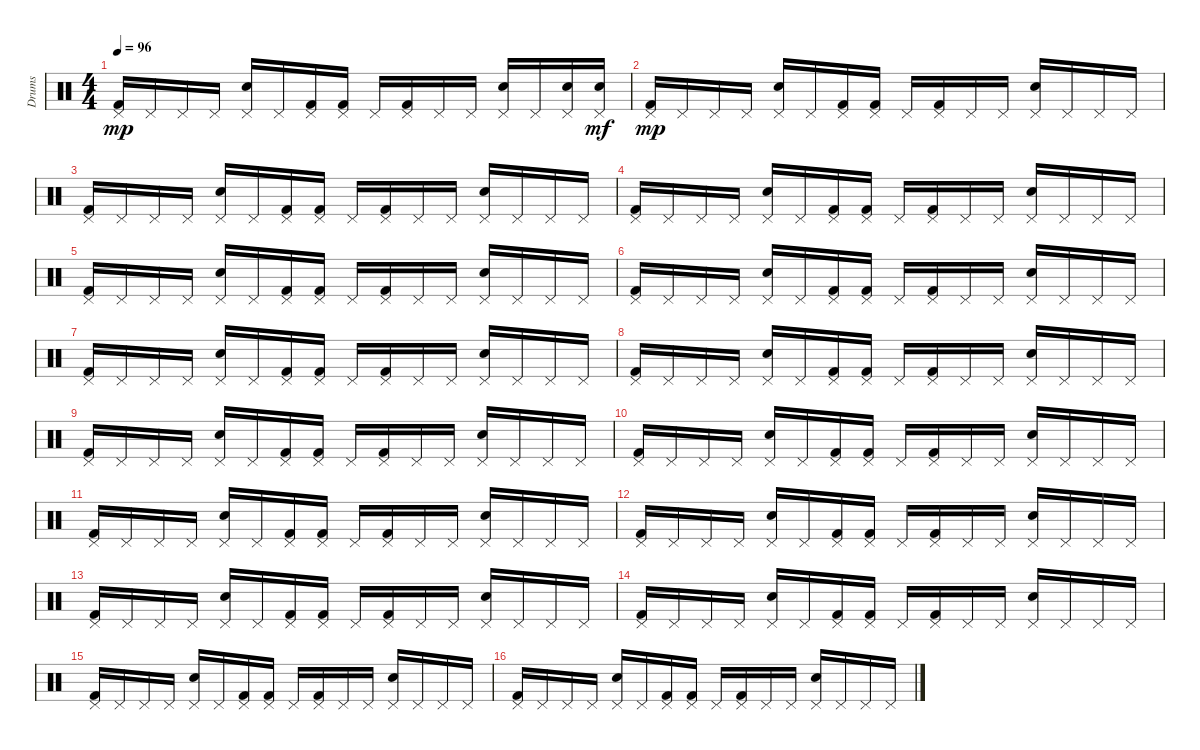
\track ("Drums" "Drums") {instrument percussion}
\staff {score}
\articulation defaults
\ts (4 4)
\tempo 96
\clef neutral
\ks c
("Pedal Hi-Hat (hit)" "Kick (hit) 2").16{dy mp} "Pedal Hi-Hat (hit)".16 "Pedal Hi-Hat (hit)".16 "Pedal Hi-Hat (hit)".16 ("Electric Snare (hit)" "Pedal Hi-Hat (hit)").16 "Pedal Hi-Hat (hit)".16 ("Pedal Hi-Hat (hit)" "Kick (hit) 2").16 ("Pedal Hi-Hat (hit)" "Kick (hit) 2").16 "Pedal Hi-Hat (hit)".16 ("Pedal Hi-Hat (hit)" "Kick (hit) 2").16 "Pedal Hi-Hat (hit)".16 "Pedal Hi-Hat (hit)".16 ("Electric Snare (hit)" "Pedal Hi-Hat (hit)").16 "Pedal Hi-Hat (hit)".16 ("Electric Snare (hit)" "Pedal Hi-Hat (hit)").16 ("Pedal Hi-Hat (hit)" "Electric Snare (hit)").16{dy mf} |
("Pedal Hi-Hat (hit)" "Kick (hit) 2").16{dy mp} "Pedal Hi-Hat (hit)".16 "Pedal Hi-Hat (hit)".16 "Pedal Hi-Hat (hit)".16 ("Electric Snare (hit)" "Pedal Hi-Hat (hit)").16 "Pedal Hi-Hat (hit)".16 ("Pedal Hi-Hat (hit)" "Kick (hit) 2").16 ("Pedal Hi-Hat (hit)" "Kick (hit) 2").16 "Pedal Hi-Hat (hit)".16 ("Pedal Hi-Hat (hit)" "Kick (hit) 2").16 "Pedal Hi-Hat (hit)".16 "Pedal Hi-Hat (hit)".16 ("Electric Snare (hit)" "Pedal Hi-Hat (hit)").16 "Pedal Hi-Hat (hit)".16 "Pedal Hi-Hat (hit)".16 "Pedal Hi-Hat (hit)".16 |
("Pedal Hi-Hat (hit)" "Kick (hit) 2").16 "Pedal Hi-Hat (hit)".16 "Pedal Hi-Hat (hit)".16 "Pedal Hi-Hat (hit)".16 ("Electric Snare (hit)" "Pedal Hi-Hat (hit)").16 "Pedal Hi-Hat (hit)".16 ("Pedal Hi-Hat (hit)" "Kick (hit) 2").16 ("Pedal Hi-Hat (hit)" "Kick (hit) 2").16 "Pedal Hi-Hat (hit)".16 ("Pedal Hi-Hat (hit)" "Kick (hit) 2").16 "Pedal Hi-Hat (hit)".16 "Pedal Hi-Hat (hit)".16 ("Electric Snare (hit)" "Pedal Hi-Hat (hit)").16 "Pedal Hi-Hat (hit)".16 "Pedal Hi-Hat (hit)".16 "Pedal Hi-Hat (hit)".16 |
("Pedal Hi-Hat (hit)" "Kick (hit) 2").16 "Pedal Hi-Hat (hit)".16 "Pedal Hi-Hat (hit)".16 "Pedal Hi-Hat (hit)".16 ("Electric Snare (hit)" "Pedal Hi-Hat (hit)").16 "Pedal Hi-Hat (hit)".16 ("Pedal Hi-Hat (hit)" "Kick (hit) 2").16 ("Pedal Hi-Hat (hit)" "Kick (hit) 2").16 "Pedal Hi-Hat (hit)".16 ("Pedal Hi-Hat (hit)" "Kick (hit) 2").16 "Pedal Hi-Hat (hit)".16 "Pedal Hi-Hat (hit)".16 ("Electric Snare (hit)" "Pedal Hi-Hat (hit)").16 "Pedal Hi-Hat (hit)".16 "Pedal Hi-Hat (hit)".16 "Pedal Hi-Hat (hit)".16 |
("Pedal Hi-Hat (hit)" "Kick (hit) 2").16 "Pedal Hi-Hat (hit)".16 "Pedal Hi-Hat (hit)".16 "Pedal Hi-Hat (hit)".16 ("Electric Snare (hit)" "Pedal Hi-Hat (hit)").16 "Pedal Hi-Hat (hit)".16 ("Pedal Hi-Hat (hit)" "Kick (hit) 2").16 ("Pedal Hi-Hat (hit)" "Kick (hit) 2").16 "Pedal Hi-Hat (hit)".16 ("Pedal Hi-Hat (hit)" "Kick (hit) 2").16 "Pedal Hi-Hat (hit)".16 "Pedal Hi-Hat (hit)".16 ("Electric Snare (hit)" "Pedal Hi-Hat (hit)").16 "Pedal Hi-Hat (hit)".16 "Pedal Hi-Hat (hit)".16 "Pedal Hi-Hat (hit)".16 |
("Pedal Hi-Hat (hit)" "Kick (hit) 2").16 "Pedal Hi-Hat (hit)".16 "Pedal Hi-Hat (hit)".16 "Pedal Hi-Hat (hit)".16 ("Electric Snare (hit)" "Pedal Hi-Hat (hit)").16 "Pedal Hi-Hat (hit)".16 ("Pedal Hi-Hat (hit)" "Kick (hit) 2").16 ("Pedal Hi-Hat (hit)" "Kick (hit) 2").16 "Pedal Hi-Hat (hit)".16 ("Pedal Hi-Hat (hit)" "Kick (hit) 2").16 "Pedal Hi-Hat (hit)".16 "Pedal Hi-Hat (hit)".16 ("Electric Snare (hit)" "Pedal Hi-Hat (hit)").16 "Pedal Hi-Hat (hit)".16 "Pedal Hi-Hat (hit)".16 "Pedal Hi-Hat (hit)".16 |
("Pedal Hi-Hat (hit)" "Kick (hit) 2").16 "Pedal Hi-Hat (hit)".16 "Pedal Hi-Hat (hit)".16 "Pedal Hi-Hat (hit)".16 ("Electric Snare (hit)" "Pedal Hi-Hat (hit)").16 "Pedal Hi-Hat (hit)".16 ("Pedal Hi-Hat (hit)" "Kick (hit) 2").16 ("Pedal Hi-Hat (hit)" "Kick (hit) 2").16 "Pedal Hi-Hat (hit)".16 ("Pedal Hi-Hat (hit)" "Kick (hit) 2").16 "Pedal Hi-Hat (hit)".16 "Pedal Hi-Hat (hit)".16 ("Electric Snare (hit)" "Pedal Hi-Hat (hit)").16 "Pedal Hi-Hat (hit)".16 "Pedal Hi-Hat (hit)".16 "Pedal Hi-Hat (hit)".16 |
("Pedal Hi-Hat (hit)" "Kick (hit) 2").16 "Pedal Hi-Hat (hit)".16 "Pedal Hi-Hat (hit)".16 "Pedal Hi-Hat (hit)".16 ("Electric Snare (hit)" "Pedal Hi-Hat (hit)").16 "Pedal Hi-Hat (hit)".16 ("Pedal Hi-Hat (hit)" "Kick (hit) 2").16 ("Pedal Hi-Hat (hit)" "Kick (hit) 2").16 "Pedal Hi-Hat (hit)".16 ("Pedal Hi-Hat (hit)" "Kick (hit) 2").16 "Pedal Hi-Hat (hit)".16 "Pedal Hi-Hat (hit)".16 ("Electric Snare (hit)" "Pedal Hi-Hat (hit)").16 "Pedal Hi-Hat (hit)".16 "Pedal Hi-Hat (hit)".16 "Pedal Hi-Hat (hit)".16 |
("Pedal Hi-Hat (hit)" "Kick (hit) 2").16 "Pedal Hi-Hat (hit)".16 "Pedal Hi-Hat (hit)".16 "Pedal Hi-Hat (hit)".16 ("Electric Snare (hit)" "Pedal Hi-Hat (hit)").16 "Pedal Hi-Hat (hit)".16 ("Pedal Hi-Hat (hit)" "Kick (hit) 2").16 ("Pedal Hi-Hat (hit)" "Kick (hit) 2").16 "Pedal Hi-Hat (hit)".16 ("Pedal Hi-Hat (hit)" "Kick (hit) 2").16 "Pedal Hi-Hat (hit)".16 "Pedal Hi-Hat (hit)".16 ("Electric Snare (hit)" "Pedal Hi-Hat (hit)").16 "Pedal Hi-Hat (hit)".16 "Pedal Hi-Hat (hit)".16 "Pedal Hi-Hat (hit)".16 |
("Pedal Hi-Hat (hit)" "Kick (hit) 2").16 "Pedal Hi-Hat (hit)".16 "Pedal Hi-Hat (hit)".16 "Pedal Hi-Hat (hit)".16 ("Electric Snare (hit)" "Pedal Hi-Hat (hit)").16 "Pedal Hi-Hat (hit)".16 ("Pedal Hi-Hat (hit)" "Kick (hit) 2").16 ("Pedal Hi-Hat (hit)" "Kick (hit) 2").16 "Pedal Hi-Hat (hit)".16 ("Pedal Hi-Hat (hit)" "Kick (hit) 2").16 "Pedal Hi-Hat (hit)".16 "Pedal Hi-Hat (hit)".16 ("Electric Snare (hit)" "Pedal Hi-Hat (hit)").16 "Pedal Hi-Hat (hit)".16 "Pedal Hi-Hat (hit)".16 "Pedal Hi-Hat (hit)".16 |
("Pedal Hi-Hat (hit)" "Kick (hit) 2").16 "Pedal Hi-Hat (hit)".16 "Pedal Hi-Hat (hit)".16 "Pedal Hi-Hat (hit)".16 ("Electric Snare (hit)" "Pedal Hi-Hat (hit)").16 "Pedal Hi-Hat (hit)".16 ("Pedal Hi-Hat (hit)" "Kick (hit) 2").16 ("Pedal Hi-Hat (hit)" "Kick (hit) 2").16 "Pedal Hi-Hat (hit)".16 ("Pedal Hi-Hat (hit)" "Kick (hit) 2").16 "Pedal Hi-Hat (hit)".16 "Pedal Hi-Hat (hit)".16 ("Electric Snare (hit)" "Pedal Hi-Hat (hit)").16 "Pedal Hi-Hat (hit)".16 "Pedal Hi-Hat (hit)".16 "Pedal Hi-Hat (hit)".16 |
("Pedal Hi-Hat (hit)" "Kick (hit) 2").16 "Pedal Hi-Hat (hit)".16 "Pedal Hi-Hat (hit)".16 "Pedal Hi-Hat (hit)".16 ("Electric Snare (hit)" "Pedal Hi-Hat (hit)").16 "Pedal Hi-Hat (hit)".16 ("Pedal Hi-Hat (hit)" "Kick (hit) 2").16 ("Pedal Hi-Hat (hit)" "Kick (hit) 2").16 "Pedal Hi-Hat (hit)".16 ("Pedal Hi-Hat (hit)" "Kick (hit) 2").16 "Pedal Hi-Hat (hit)".16 "Pedal Hi-Hat (hit)".16 ("Electric Snare (hit)" "Pedal Hi-Hat (hit)").16 "Pedal Hi-Hat (hit)".16 "Pedal Hi-Hat (hit)".16 "Pedal Hi-Hat (hit)".16 |
("Pedal Hi-Hat (hit)" "Kick (hit) 2").16 "Pedal Hi-Hat (hit)".16 "Pedal Hi-Hat (hit)".16 "Pedal Hi-Hat (hit)".16 ("Electric Snare (hit)" "Pedal Hi-Hat (hit)").16 "Pedal Hi-Hat (hit)".16 ("Pedal Hi-Hat (hit)" "Kick (hit) 2").16 ("Pedal Hi-Hat (hit)" "Kick (hit) 2").16 "Pedal Hi-Hat (hit)".16 ("Pedal Hi-Hat (hit)" "Kick (hit) 2").16 "Pedal Hi-Hat (hit)".16 "Pedal Hi-Hat (hit)".16 ("Electric Snare (hit)" "Pedal Hi-Hat (hit)").16 "Pedal Hi-Hat (hit)".16 "Pedal Hi-Hat (hit)".16 "Pedal Hi-Hat (hit)".16 |
("Pedal Hi-Hat (hit)" "Kick (hit) 2").16 "Pedal Hi-Hat (hit)".16 "Pedal Hi-Hat (hit)".16 "Pedal Hi-Hat (hit)".16 ("Electric Snare (hit)" "Pedal Hi-Hat (hit)").16 "Pedal Hi-Hat (hit)".16 ("Pedal Hi-Hat (hit)" "Kick (hit) 2").16 ("Pedal Hi-Hat (hit)" "Kick (hit) 2").16 "Pedal Hi-Hat (hit)".16 ("Pedal Hi-Hat (hit)" "Kick (hit) 2").16 "Pedal Hi-Hat (hit)".16 "Pedal Hi-Hat (hit)".16 ("Electric Snare (hit)" "Pedal Hi-Hat (hit)").16 "Pedal Hi-Hat (hit)".16 "Pedal Hi-Hat (hit)".16 "Pedal Hi-Hat (hit)".16 |
("Pedal Hi-Hat (hit)" "Kick (hit) 2").16 "Pedal Hi-Hat (hit)".16 "Pedal Hi-Hat (hit)".16 "Pedal Hi-Hat (hit)".16 ("Electric Snare (hit)" "Pedal Hi-Hat (hit)").16 "Pedal Hi-Hat (hit)".16 ("Pedal Hi-Hat (hit)" "Kick (hit) 2").16 ("Pedal Hi-Hat (hit)" "Kick (hit) 2").16 "Pedal Hi-Hat (hit)".16 ("Pedal Hi-Hat (hit)" "Kick (hit) 2").16 "Pedal Hi-Hat (hit)".16 "Pedal Hi-Hat (hit)".16 ("Electric Snare (hit)" "Pedal Hi-Hat (hit)").16 "Pedal Hi-Hat (hit)".16 "Pedal Hi-Hat (hit)".16 "Pedal Hi-Hat (hit)".16 |
("Pedal Hi-Hat (hit)" "Kick (hit) 2").16 "Pedal Hi-Hat (hit)".16 "Pedal Hi-Hat (hit)".16 "Pedal Hi-Hat (hit)".16 ("Electric Snare (hit)" "Pedal Hi-Hat (hit)").16 "Pedal Hi-Hat (hit)".16 ("Pedal Hi-Hat (hit)" "Kick (hit) 2").16 ("Pedal Hi-Hat (hit)" "Kick (hit) 2").16 "Pedal Hi-Hat (hit)".16 ("Pedal Hi-Hat (hit)" "Kick (hit) 2").16 "Pedal Hi-Hat (hit)".16 "Pedal Hi-Hat (hit)".16 ("Electric Snare (hit)" "Pedal Hi-Hat (hit)").16 "Pedal Hi-Hat (hit)".16 "Pedal Hi-Hat (hit)".16 "Pedal Hi-Hat (hit)".16
